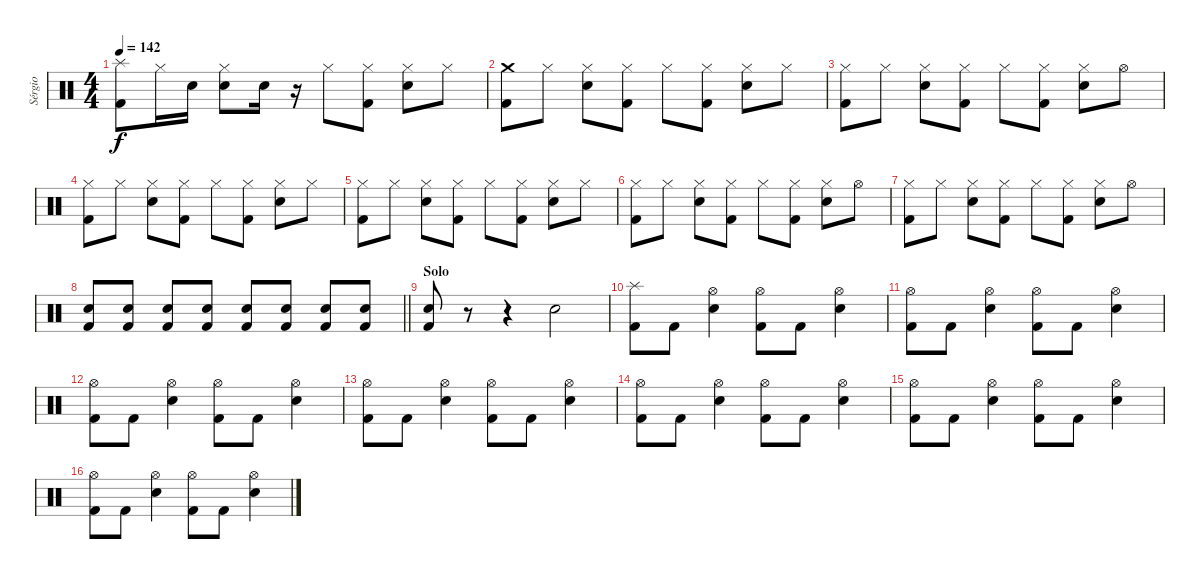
\track ("Sérgio" "Sérgio") {instrument percussion}
\staff {score}
\articulation defaults
\ts (4 4)
\tempo 142
\clef neutral
\ks c
("Splash (hit)" "Kick (hit) 2").8{dy f} "Hi-Hat (closed)".16 "Snare (hit) 2".16 ("Hi-Hat (closed)" "Snare (hit) 2").8 "Snare (hit) 2".16 r.16 "Hi-Hat (closed)".8 ("Hi-Hat (closed)" "Kick (hit) 2").8 ("Hi-Hat (closed)" "Snare (hit) 2").8 "Hi-Hat (closed)".8 |
("Crash medium (hit)" "Kick (hit) 2").8 "Hi-Hat (closed)".8 ("Hi-Hat (closed)" "Snare (hit) 2").8 ("Hi-Hat (closed)" "Kick (hit) 2").8 "Hi-Hat (closed)".8 ("Hi-Hat (closed)" "Kick (hit) 2").8 ("Hi-Hat (closed)" "Snare (hit) 2").8 "Hi-Hat (closed)".8 |
("Hi-Hat (closed)" "Kick (hit) 2").8 "Hi-Hat (closed)".8 ("Hi-Hat (closed)" "Snare (hit) 2").8 ("Hi-Hat (closed)" "Kick (hit) 2").8 "Hi-Hat (closed)".8 ("Hi-Hat (closed)" "Kick (hit) 2").8 ("Hi-Hat (closed)" "Snare (hit) 2").8 "Hi-Hat (open)".8 |
("Hi-Hat (closed)" "Kick (hit) 2").8 "Hi-Hat (closed)".8 ("Hi-Hat (closed)" "Snare (hit) 2").8 ("Hi-Hat (closed)" "Kick (hit) 2").8 "Hi-Hat (closed)".8 ("Hi-Hat (closed)" "Kick (hit) 2").8 ("Hi-Hat (closed)" "Snare (hit) 2").8 "Hi-Hat (closed)".8 |
("Hi-Hat (closed)" "Kick (hit) 2").8 "Hi-Hat (closed)".8 ("Hi-Hat (closed)" "Snare (hit) 2").8 ("Hi-Hat (closed)" "Kick (hit) 2").8 "Hi-Hat (closed)".8 ("Hi-Hat (closed)" "Kick (hit) 2").8 ("Hi-Hat (closed)" "Snare (hit) 2").8 "Hi-Hat (closed)".8 |
("Hi-Hat (closed)" "Kick (hit) 2").8 "Hi-Hat (closed)".8 ("Hi-Hat (closed)" "Snare (hit) 2").8 ("Hi-Hat (closed)" "Kick (hit) 2").8 "Hi-Hat (closed)".8 ("Hi-Hat (closed)" "Kick (hit) 2").8 ("Hi-Hat (closed)" "Snare (hit) 2").8 "Hi-Hat (open)".8 |
("Hi-Hat (closed)" "Kick (hit) 2").8 "Hi-Hat (closed)".8 ("Hi-Hat (closed)" "Snare (hit) 2").8 ("Hi-Hat (closed)" "Kick (hit) 2").8 "Hi-Hat (closed)".8 ("Hi-Hat (closed)" "Kick (hit) 2").8 ("Hi-Hat (closed)" "Snare (hit) 2").8 "Hi-Hat (open)".8 |
\barLineRight lightlight
("Snare (hit) 2" "Kick (hit) 2").8 ("Snare (hit) 2" "Kick (hit) 2").8 ("Snare (hit) 2" "Kick (hit) 2").8 ("Snare (hit) 2" "Kick (hit) 2").8 ("Snare (hit) 2" "Kick (hit) 2").8 ("Snare (hit) 2" "Kick (hit) 2").8 ("Snare (hit) 2" "Kick (hit) 2").8 ("Snare (hit) 2" "Kick (hit) 2").8 |
\section ("" "Solo")
("Snare (hit) 2" "Kick (hit) 2").8 r.8 r.4 "Snare (hit) 2".2 |
("Splash (hit)" "Kick (hit) 2").8 "Kick (hit) 2".8 ("Hi-Hat (open)" "Snare (hit) 2").4 ("Hi-Hat (open)" "Kick (hit) 2").8 "Kick (hit) 2".8 ("Hi-Hat (open)" "Snare (hit) 2").4 |
("Hi-Hat (open)" "Kick (hit) 2").8 "Kick (hit) 2".8 ("Hi-Hat (open)" "Snare (hit) 2").4 ("Hi-Hat (open)" "Kick (hit) 2").8 "Kick (hit) 2".8 ("Hi-Hat (open)" "Snare (hit) 2").4 |
("Hi-Hat (open)" "Kick (hit) 2").8 "Kick (hit) 2".8 ("Hi-Hat (open)" "Snare (hit) 2").4 ("Hi-Hat (open)" "Kick (hit) 2").8 "Kick (hit) 2".8 ("Hi-Hat (open)" "Snare (hit) 2").4 |
("Hi-Hat (open)" "Kick (hit) 2").8 "Kick (hit) 2".8 ("Hi-Hat (open)" "Snare (hit) 2").4 ("Hi-Hat (open)" "Kick (hit) 2").8 "Kick (hit) 2".8 ("Hi-Hat (open)" "Snare (hit) 2").4 |
("Hi-Hat (open)" "Kick (hit) 2").8 "Kick (hit) 2".8 ("Hi-Hat (open)" "Snare (hit) 2").4 ("Hi-Hat (open)" "Kick (hit) 2").8 "Kick (hit) 2".8 ("Hi-Hat (open)" "Snare (hit) 2").4 |
("Hi-Hat (open)" "Kick (hit) 2").8 "Kick (hit) 2".8 ("Hi-Hat (open)" "Snare (hit) 2").4 ("Hi-Hat (open)" "Kick (hit) 2").8 "Kick (hit) 2".8 ("Hi-Hat (open)" "Snare (hit) 2").4 |
("Hi-Hat (open)" "Kick (hit) 2").8 "Kick (hit) 2".8 ("Hi-Hat (open)" "Snare (hit) 2").4 ("Hi-Hat (open)" "Kick (hit) 2").8 "Kick (hit) 2".8 ("Hi-Hat (open)" "Snare (hit) 2").4
